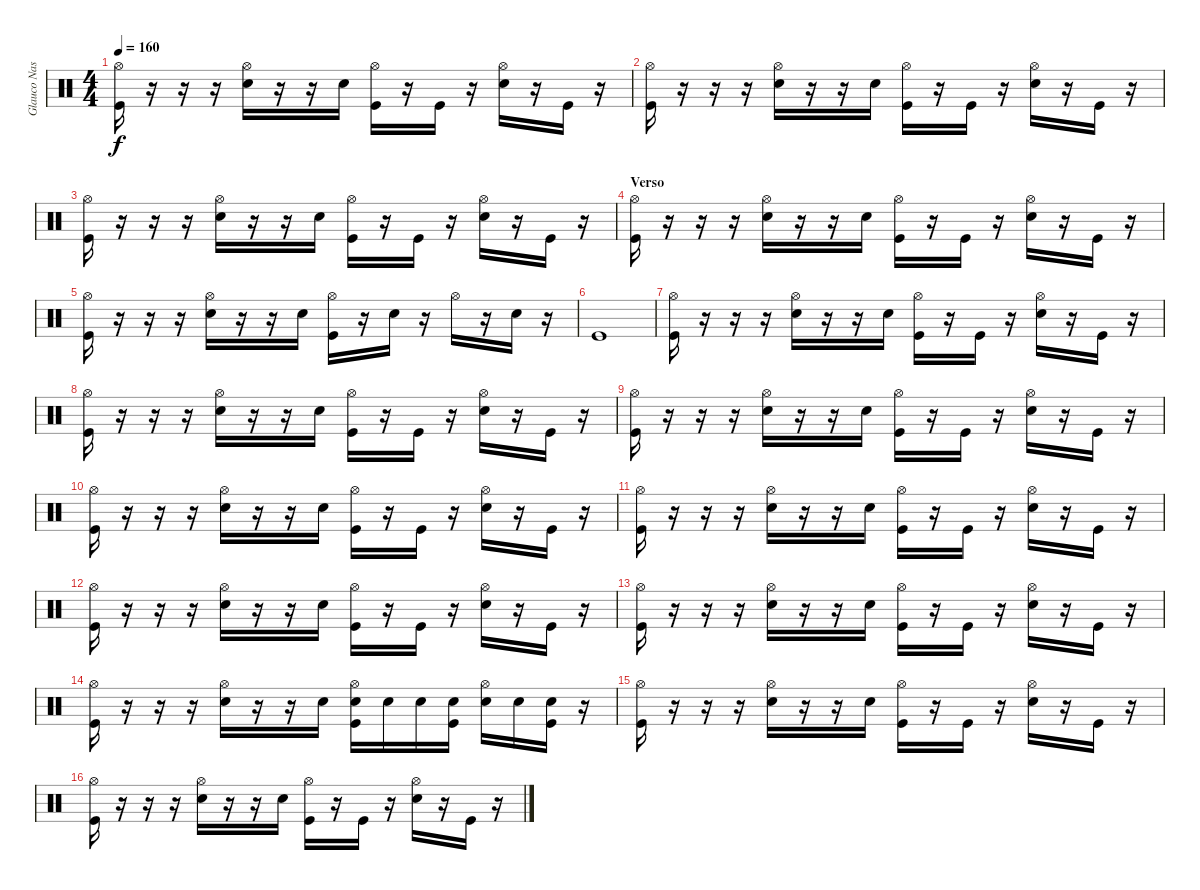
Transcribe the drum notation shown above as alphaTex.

\track ("Glauco Nastácia" "Glauco Nas") {instrument percussion}
\staff {score}
\articulation defaults
\ts (4 4)
\tempo 160
\clef neutral
\ks c
("Hi-Hat (open)" "Kick (hit)").16{dy f} r.16 r.16 r.16 ("Hi-Hat (open)" "Electric Snare (hit)").16 r.16 r.16 "Electric Snare (hit)".16 ("Hi-Hat (open)" "Kick (hit)").16 r.16 "Kick (hit)".16 r.16 ("Hi-Hat (open)" "Electric Snare (hit)").16 r.16 "Kick (hit)".16 r.16 |
("Hi-Hat (open)" "Kick (hit)").16 r.16 r.16 r.16 ("Hi-Hat (open)" "Electric Snare (hit)").16 r.16 r.16 "Electric Snare (hit)".16 ("Hi-Hat (open)" "Kick (hit)").16 r.16 "Kick (hit)".16 r.16 ("Hi-Hat (open)" "Electric Snare (hit)").16 r.16 "Kick (hit)".16 r.16 |
("Hi-Hat (open)" "Kick (hit)").16 r.16 r.16 r.16 ("Hi-Hat (open)" "Electric Snare (hit)").16 r.16 r.16 "Electric Snare (hit)".16 ("Hi-Hat (open)" "Kick (hit)").16 r.16 "Kick (hit)".16 r.16 ("Hi-Hat (open)" "Electric Snare (hit)").16 r.16 "Kick (hit)".16 r.16 |
\section ("" "Verso")
("Hi-Hat (open)" "Kick (hit)").16 r.16 r.16 r.16 ("Hi-Hat (open)" "Electric Snare (hit)").16 r.16 r.16 "Electric Snare (hit)".16 ("Hi-Hat (open)" "Kick (hit)").16 r.16 "Kick (hit)".16 r.16 ("Hi-Hat (open)" "Electric Snare (hit)").16 r.16 "Kick (hit)".16 r.16 |
("Hi-Hat (open)" "Kick (hit)").16 r.16 r.16 r.16 ("Hi-Hat (open)" "Electric Snare (hit)").16 r.16 r.16 "Electric Snare (hit)".16 ("Hi-Hat (open)" "Kick (hit)").16 r.16 "Electric Snare (hit)".16 r.16 "Hi-Hat (open)".16 r.16 "Electric Snare (hit)".16 r.16 |
"Kick (hit)".1 |
("Hi-Hat (open)" "Kick (hit)").16 r.16 r.16 r.16 ("Hi-Hat (open)" "Electric Snare (hit)").16 r.16 r.16 "Electric Snare (hit)".16 ("Hi-Hat (open)" "Kick (hit)").16 r.16 "Kick (hit)".16 r.16 ("Hi-Hat (open)" "Electric Snare (hit)").16 r.16 "Kick (hit)".16 r.16 |
("Hi-Hat (open)" "Kick (hit)").16 r.16 r.16 r.16 ("Hi-Hat (open)" "Electric Snare (hit)").16 r.16 r.16 "Electric Snare (hit)".16 ("Hi-Hat (open)" "Kick (hit)").16 r.16 "Kick (hit)".16 r.16 ("Hi-Hat (open)" "Electric Snare (hit)").16 r.16 "Kick (hit)".16 r.16 |
("Hi-Hat (open)" "Kick (hit)").16 r.16 r.16 r.16 ("Hi-Hat (open)" "Electric Snare (hit)").16 r.16 r.16 "Electric Snare (hit)".16 ("Hi-Hat (open)" "Kick (hit)").16 r.16 "Kick (hit)".16 r.16 ("Hi-Hat (open)" "Electric Snare (hit)").16 r.16 "Kick (hit)".16 r.16 |
("Hi-Hat (open)" "Kick (hit)").16 r.16 r.16 r.16 ("Hi-Hat (open)" "Electric Snare (hit)").16 r.16 r.16 "Electric Snare (hit)".16 ("Hi-Hat (open)" "Kick (hit)").16 r.16 "Kick (hit)".16 r.16 ("Hi-Hat (open)" "Electric Snare (hit)").16 r.16 "Kick (hit)".16 r.16 |
("Hi-Hat (open)" "Kick (hit)").16 r.16 r.16 r.16 ("Hi-Hat (open)" "Electric Snare (hit)").16 r.16 r.16 "Electric Snare (hit)".16 ("Hi-Hat (open)" "Kick (hit)").16 r.16 "Kick (hit)".16 r.16 ("Hi-Hat (open)" "Electric Snare (hit)").16 r.16 "Kick (hit)".16 r.16 |
("Hi-Hat (open)" "Kick (hit)").16 r.16 r.16 r.16 ("Hi-Hat (open)" "Electric Snare (hit)").16 r.16 r.16 "Electric Snare (hit)".16 ("Hi-Hat (open)" "Kick (hit)").16 r.16 "Kick (hit)".16 r.16 ("Hi-Hat (open)" "Electric Snare (hit)").16 r.16 "Kick (hit)".16 r.16 |
("Hi-Hat (open)" "Kick (hit)").16 r.16 r.16 r.16 ("Hi-Hat (open)" "Electric Snare (hit)").16 r.16 r.16 "Electric Snare (hit)".16 ("Hi-Hat (open)" "Kick (hit)").16 r.16 "Kick (hit)".16 r.16 ("Hi-Hat (open)" "Electric Snare (hit)").16 r.16 "Kick (hit)".16 r.16 |
("Hi-Hat (open)" "Kick (hit)").16 r.16 r.16 r.16 ("Hi-Hat (open)" "Electric Snare (hit)").16 r.16 r.16 "Electric Snare (hit)".16 ("Hi-Hat (open)" "Electric Snare (hit)" "Kick (hit)").16 "Electric Snare (hit)".16 "Electric Snare (hit)".16 ("Electric Snare (hit)" "Kick (hit)").16 ("Hi-Hat (open)" "Electric Snare (hit)").16 "Electric Snare (hit)".16 ("Electric Snare (hit)" "Kick (hit)").16 r.16 |
("Hi-Hat (open)" "Kick (hit)").16 r.16 r.16 r.16 ("Hi-Hat (open)" "Electric Snare (hit)").16 r.16 r.16 "Electric Snare (hit)".16 ("Hi-Hat (open)" "Kick (hit)").16 r.16 "Kick (hit)".16 r.16 ("Hi-Hat (open)" "Electric Snare (hit)").16 r.16 "Kick (hit)".16 r.16 |
("Hi-Hat (open)" "Kick (hit)").16 r.16 r.16 r.16 ("Hi-Hat (open)" "Electric Snare (hit)").16 r.16 r.16 "Electric Snare (hit)".16 ("Hi-Hat (open)" "Kick (hit)").16 r.16 "Kick (hit)".16 r.16 ("Hi-Hat (open)" "Electric Snare (hit)").16 r.16 "Kick (hit)".16 r.16
